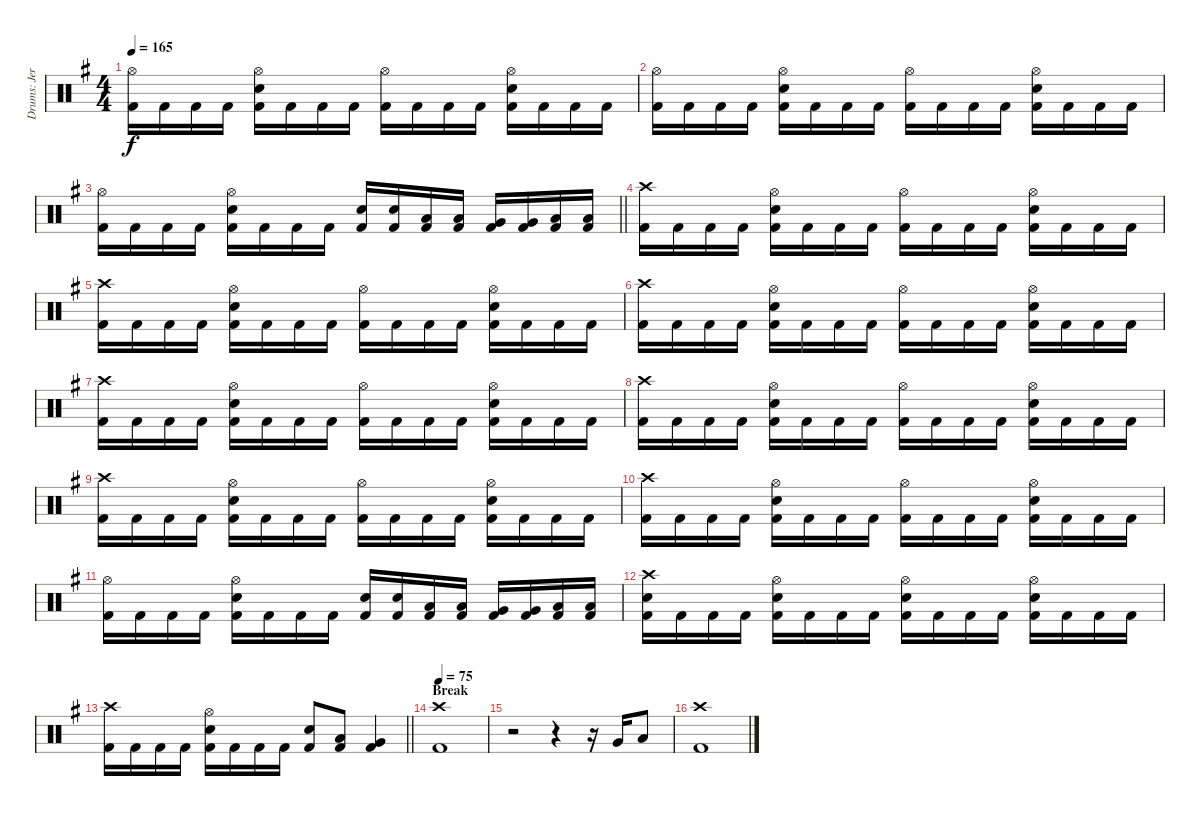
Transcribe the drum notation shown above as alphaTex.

\track ("Drums: Jere Luokkamäki" "Drums: Jer") {instrument percussion}
\staff {score}
\articulation defaults
\ts (4 4)
\tempo 165
\clef neutral
\ks eminor
("Hi-Hat (open)" "Kick (hit) 2").16{dy f} "Kick (hit) 2".16 "Kick (hit) 2".16 "Kick (hit) 2".16 ("Hi-Hat (open)" "Electric Snare (hit)" "Kick (hit) 2").16 "Kick (hit) 2".16 "Kick (hit) 2".16 "Kick (hit) 2".16 ("Hi-Hat (open)" "Kick (hit) 2").16 "Kick (hit) 2".16 "Kick (hit) 2".16 "Kick (hit) 2".16 ("Hi-Hat (open)" "Electric Snare (hit)" "Kick (hit) 2").16 "Kick (hit) 2".16 "Kick (hit) 2".16 "Kick (hit) 2".16 |
("Hi-Hat (open)" "Kick (hit) 2").16 "Kick (hit) 2".16 "Kick (hit) 2".16 "Kick (hit) 2".16 ("Hi-Hat (open)" "Electric Snare (hit)" "Kick (hit) 2").16 "Kick (hit) 2".16 "Kick (hit) 2".16 "Kick (hit) 2".16 ("Hi-Hat (open)" "Kick (hit) 2").16 "Kick (hit) 2".16 "Kick (hit) 2".16 "Kick (hit) 2".16 ("Hi-Hat (open)" "Electric Snare (hit)" "Kick (hit) 2").16 "Kick (hit) 2".16 "Kick (hit) 2".16 "Kick (hit) 2".16 |
\barLineRight lightlight
("Hi-Hat (open)" "Kick (hit) 2").16 "Kick (hit) 2".16 "Kick (hit) 2".16 "Kick (hit) 2".16 ("Hi-Hat (open)" "Electric Snare (hit)" "Kick (hit) 2").16 "Kick (hit) 2".16 "Kick (hit) 2".16 "Kick (hit) 2".16 ("Electric Snare (hit)" "Kick (hit) 2").16 ("Electric Snare (hit)" "Kick (hit) 2").16 ("Low Tom (hit)" "Kick (hit) 2").16 ("Low Tom (hit)" "Kick (hit) 2").16 ("Very Low Tom (hit)" "Kick (hit) 2").16 ("Very Low Tom (hit)" "Kick (hit) 2").16 ("Low Tom (hit)" "Kick (hit) 2").16 ("Low Tom (hit)" "Kick (hit) 2").16 |
("Crash high (hit)" "Kick (hit) 2").16 "Kick (hit) 2".16 "Kick (hit) 2".16 "Kick (hit) 2".16 ("Hi-Hat (open)" "Electric Snare (hit)" "Kick (hit) 2").16 "Kick (hit) 2".16 "Kick (hit) 2".16 "Kick (hit) 2".16 ("Hi-Hat (open)" "Kick (hit) 2").16 "Kick (hit) 2".16 "Kick (hit) 2".16 "Kick (hit) 2".16 ("Hi-Hat (open)" "Electric Snare (hit)" "Kick (hit) 2").16 "Kick (hit) 2".16 "Kick (hit) 2".16 "Kick (hit) 2".16 |
("Crash high (hit)" "Kick (hit) 2").16 "Kick (hit) 2".16 "Kick (hit) 2".16 "Kick (hit) 2".16 ("Hi-Hat (open)" "Electric Snare (hit)" "Kick (hit) 2").16 "Kick (hit) 2".16 "Kick (hit) 2".16 "Kick (hit) 2".16 ("Hi-Hat (open)" "Kick (hit) 2").16 "Kick (hit) 2".16 "Kick (hit) 2".16 "Kick (hit) 2".16 ("Hi-Hat (open)" "Electric Snare (hit)" "Kick (hit) 2").16 "Kick (hit) 2".16 "Kick (hit) 2".16 "Kick (hit) 2".16 |
("Crash high (hit)" "Kick (hit) 2").16 "Kick (hit) 2".16 "Kick (hit) 2".16 "Kick (hit) 2".16 ("Hi-Hat (open)" "Electric Snare (hit)" "Kick (hit) 2").16 "Kick (hit) 2".16 "Kick (hit) 2".16 "Kick (hit) 2".16 ("Hi-Hat (open)" "Kick (hit) 2").16 "Kick (hit) 2".16 "Kick (hit) 2".16 "Kick (hit) 2".16 ("Hi-Hat (open)" "Electric Snare (hit)" "Kick (hit) 2").16 "Kick (hit) 2".16 "Kick (hit) 2".16 "Kick (hit) 2".16 |
("Crash high (hit)" "Kick (hit) 2").16 "Kick (hit) 2".16 "Kick (hit) 2".16 "Kick (hit) 2".16 ("Hi-Hat (open)" "Electric Snare (hit)" "Kick (hit) 2").16 "Kick (hit) 2".16 "Kick (hit) 2".16 "Kick (hit) 2".16 ("Hi-Hat (open)" "Kick (hit) 2").16 "Kick (hit) 2".16 "Kick (hit) 2".16 "Kick (hit) 2".16 ("Hi-Hat (open)" "Electric Snare (hit)" "Kick (hit) 2").16 "Kick (hit) 2".16 "Kick (hit) 2".16 "Kick (hit) 2".16 |
("Crash high (hit)" "Kick (hit) 2").16 "Kick (hit) 2".16 "Kick (hit) 2".16 "Kick (hit) 2".16 ("Hi-Hat (open)" "Electric Snare (hit)" "Kick (hit) 2").16 "Kick (hit) 2".16 "Kick (hit) 2".16 "Kick (hit) 2".16 ("Hi-Hat (open)" "Kick (hit) 2").16 "Kick (hit) 2".16 "Kick (hit) 2".16 "Kick (hit) 2".16 ("Hi-Hat (open)" "Electric Snare (hit)" "Kick (hit) 2").16 "Kick (hit) 2".16 "Kick (hit) 2".16 "Kick (hit) 2".16 |
("Crash high (hit)" "Kick (hit) 2").16 "Kick (hit) 2".16 "Kick (hit) 2".16 "Kick (hit) 2".16 ("Hi-Hat (open)" "Electric Snare (hit)" "Kick (hit) 2").16 "Kick (hit) 2".16 "Kick (hit) 2".16 "Kick (hit) 2".16 ("Hi-Hat (open)" "Kick (hit) 2").16 "Kick (hit) 2".16 "Kick (hit) 2".16 "Kick (hit) 2".16 ("Hi-Hat (open)" "Electric Snare (hit)" "Kick (hit) 2").16 "Kick (hit) 2".16 "Kick (hit) 2".16 "Kick (hit) 2".16 |
("Crash high (hit)" "Kick (hit) 2").16 "Kick (hit) 2".16 "Kick (hit) 2".16 "Kick (hit) 2".16 ("Hi-Hat (open)" "Electric Snare (hit)" "Kick (hit) 2").16 "Kick (hit) 2".16 "Kick (hit) 2".16 "Kick (hit) 2".16 ("Hi-Hat (open)" "Kick (hit) 2").16 "Kick (hit) 2".16 "Kick (hit) 2".16 "Kick (hit) 2".16 ("Hi-Hat (open)" "Electric Snare (hit)" "Kick (hit) 2").16 "Kick (hit) 2".16 "Kick (hit) 2".16 "Kick (hit) 2".16 |
("Hi-Hat (open)" "Kick (hit) 2").16 "Kick (hit) 2".16 "Kick (hit) 2".16 "Kick (hit) 2".16 ("Hi-Hat (open)" "Electric Snare (hit)" "Kick (hit) 2").16 "Kick (hit) 2".16 "Kick (hit) 2".16 "Kick (hit) 2".16 ("Electric Snare (hit)" "Kick (hit) 2").16 ("Electric Snare (hit)" "Kick (hit) 2").16 ("Low Tom (hit)" "Kick (hit) 2").16 ("Low Tom (hit)" "Kick (hit) 2").16 ("Very Low Tom (hit)" "Kick (hit) 2").16 ("Very Low Tom (hit)" "Kick (hit) 2").16 ("Low Tom (hit)" "Kick (hit) 2").16 ("Low Tom (hit)" "Kick (hit) 2").16 |
("Crash high (hit)" "Electric Snare (hit)" "Kick (hit) 2").16 "Kick (hit) 2".16 "Kick (hit) 2".16 "Kick (hit) 2".16 ("Hi-Hat (open)" "Electric Snare (hit)" "Kick (hit) 2").16 "Kick (hit) 2".16 "Kick (hit) 2".16 "Kick (hit) 2".16 ("Hi-Hat (open)" "Electric Snare (hit)" "Kick (hit) 2").16 "Kick (hit) 2".16 "Kick (hit) 2".16 "Kick (hit) 2".16 ("Hi-Hat (open)" "Electric Snare (hit)" "Kick (hit) 2").16 "Kick (hit) 2".16 "Kick (hit) 2".16 "Kick (hit) 2".16 |
\barLineRight lightlight
("Crash high (hit)" "Kick (hit) 2").16 "Kick (hit) 2".16 "Kick (hit) 2".16 "Kick (hit) 2".16 ("Hi-Hat (open)" "Electric Snare (hit)" "Kick (hit) 2").16 "Kick (hit) 2".16 "Kick (hit) 2".16 "Kick (hit) 2".16 ("Electric Snare (hit)" "Kick (hit) 2").8 ("Low Tom (hit)" "Kick (hit) 2").8 ("Very Low Tom (hit)" "Kick (hit) 2").4 |
\section ("" "Break")
\tempo 75
("Crash high (hit)" "Kick (hit) 2").1 |
r.2 r.4 r.16 "Very Low Tom (hit)".16 "Low Tom (hit)".8 |
("Crash high (hit)" "Kick (hit) 2").1
